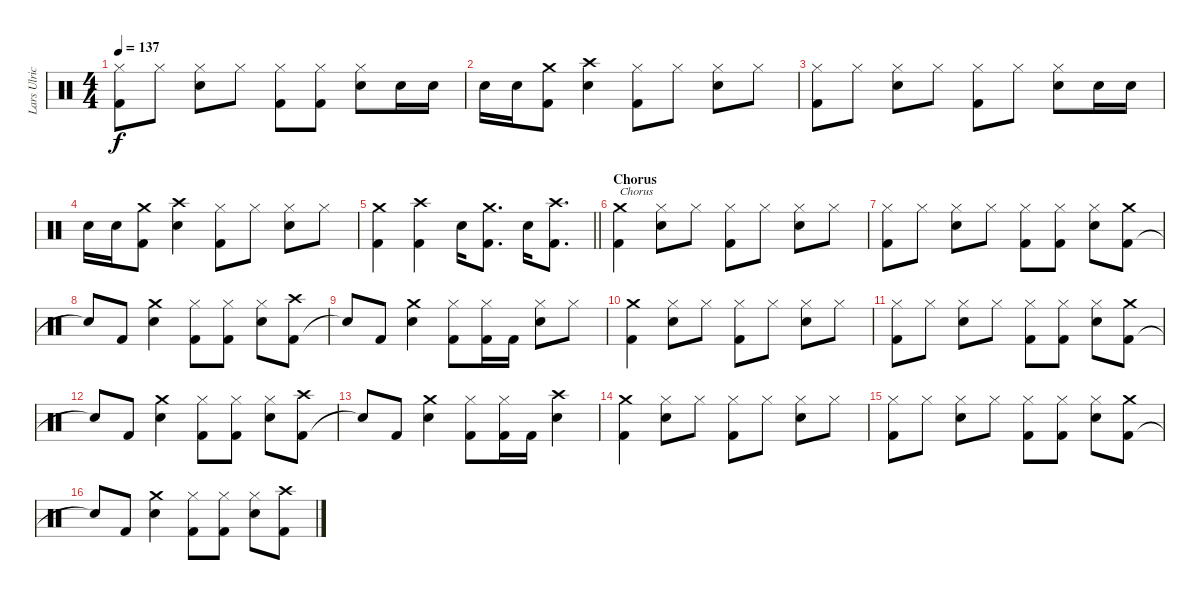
\track ("Lars Ulrich" "Lars Ulric") {instrument percussion}
\staff {score}
\articulation defaults
\ts (4 4)
\tempo 137
\clef neutral
\ks c
("Kick (hit) 2" "Hi-Hat (closed)").8{dy f} "Hi-Hat (closed)".8 ("Snare (hit) 2" "Hi-Hat (closed)").8 "Hi-Hat (closed)".8 ("Kick (hit) 2" "Hi-Hat (closed)").8 ("Kick (hit) 2" "Hi-Hat (closed)").8 ("Snare (hit) 2" "Hi-Hat (closed)").8 "Snare (hit) 2".16 "Snare (hit) 2".16 |
"Snare (hit) 2".16 "Snare (hit) 2".16 ("Kick (hit) 2" "Crash medium (hit)").8 ("Snare (hit) 2" "Crash high (hit)").4 ("Kick (hit) 2" "Hi-Hat (closed)").8 "Hi-Hat (closed)".8 ("Snare (hit) 2" "Hi-Hat (closed)").8 "Hi-Hat (closed)".8 |
("Kick (hit) 2" "Hi-Hat (closed)").8 "Hi-Hat (closed)".8 ("Snare (hit) 2" "Hi-Hat (closed)").8 "Hi-Hat (closed)".8 ("Kick (hit) 2" "Hi-Hat (closed)").8 "Hi-Hat (closed)".8 ("Snare (hit) 2" "Hi-Hat (closed)").8 "Snare (hit) 2".16 "Snare (hit) 2".16 |
"Snare (hit) 2".16 "Snare (hit) 2".16 ("Kick (hit) 2" "Crash medium (hit)").8 ("Snare (hit) 2" "Crash high (hit)").4 ("Kick (hit) 2" "Hi-Hat (closed)").8 "Hi-Hat (closed)".8 ("Snare (hit) 2" "Hi-Hat (closed)").8 "Hi-Hat (closed)".8 |
\barLineRight lightlight
("Kick (hit) 2" "Crash medium (hit)").4 ("Kick (hit) 2" "Crash high (hit)").4 "Snare (hit) 2".16 ("Kick (hit) 2" "Crash medium (hit)").8{d} "Snare (hit) 2".16 ("Kick (hit) 2" "Crash high (hit)").8{d} |
\section ("" "Chorus")
("Kick (hit) 2" "Crash medium (hit)").4{txt "Chorus"} ("Snare (hit) 2" "Hi-Hat (closed)").8 "Hi-Hat (closed)".8 ("Kick (hit) 2" "Hi-Hat (closed)").8 "Hi-Hat (closed)".8 ("Snare (hit) 2" "Hi-Hat (closed)").8 "Hi-Hat (closed)".8 |
("Kick (hit) 2" "Hi-Hat (closed)").8 "Hi-Hat (closed)".8 ("Snare (hit) 2" "Hi-Hat (closed)").8 "Hi-Hat (closed)".8 ("Kick (hit) 2" "Hi-Hat (closed)").8 ("Kick (hit) 2" "Hi-Hat (closed)").8 ("Snare (hit) 2" "Hi-Hat (closed)").8 ("Kick (hit) 2" "Crash medium (hit)").8 |
"Snare (hit)"{t}.8 "Kick (hit) 2".8 ("Snare (hit) 2" "Crash medium (hit)").4 ("Kick (hit) 2" "Hi-Hat (closed)").8 ("Kick (hit) 2" "Hi-Hat (closed)").8 ("Snare (hit) 2" "Hi-Hat (closed)").8 ("Kick (hit) 2" "Crash high (hit)").8 |
"Snare (hit)"{t}.8 "Kick (hit) 2".8 ("Snare (hit) 2" "Crash medium (hit)").4 ("Kick (hit) 2" "Hi-Hat (closed)").8 ("Kick (hit) 2" "Hi-Hat (closed)").16 "Kick (hit) 2".16 ("Snare (hit) 2" "Hi-Hat (closed)").8 "Hi-Hat (closed)".8 |
("Kick (hit) 2" "Crash medium (hit)").4 ("Snare (hit) 2" "Hi-Hat (closed)").8 "Hi-Hat (closed)".8 ("Kick (hit) 2" "Hi-Hat (closed)").8 "Hi-Hat (closed)".8 ("Snare (hit) 2" "Hi-Hat (closed)").8 "Hi-Hat (closed)".8 |
("Kick (hit) 2" "Hi-Hat (closed)").8 "Hi-Hat (closed)".8 ("Snare (hit) 2" "Hi-Hat (closed)").8 "Hi-Hat (closed)".8 ("Kick (hit) 2" "Hi-Hat (closed)").8 ("Kick (hit) 2" "Hi-Hat (closed)").8 ("Snare (hit) 2" "Hi-Hat (closed)").8 ("Kick (hit) 2" "Crash medium (hit)").8 |
"Snare (hit)"{t}.8 "Kick (hit) 2".8 ("Snare (hit) 2" "Crash medium (hit)").4 ("Kick (hit) 2" "Hi-Hat (closed)").8 ("Kick (hit) 2" "Hi-Hat (closed)").8 ("Snare (hit) 2" "Hi-Hat (closed)").8 ("Kick (hit) 2" "Crash high (hit)").8 |
"Snare (hit)"{t}.8 "Kick (hit) 2".8 ("Snare (hit) 2" "Crash medium (hit)").4 ("Kick (hit) 2" "Hi-Hat (closed)").8 ("Kick (hit) 2" "Hi-Hat (closed)").16 "Kick (hit) 2".16 ("Snare (hit) 2" "Crash high (hit)").4 |
("Kick (hit) 2" "Crash medium (hit)").4 ("Snare (hit) 2" "Hi-Hat (closed)").8 "Hi-Hat (closed)".8 ("Kick (hit) 2" "Hi-Hat (closed)").8 "Hi-Hat (closed)".8 ("Snare (hit) 2" "Hi-Hat (closed)").8 "Hi-Hat (closed)".8 |
("Kick (hit) 2" "Hi-Hat (closed)").8 "Hi-Hat (closed)".8 ("Snare (hit) 2" "Hi-Hat (closed)").8 "Hi-Hat (closed)".8 ("Kick (hit) 2" "Hi-Hat (closed)").8 ("Kick (hit) 2" "Hi-Hat (closed)").8 ("Snare (hit) 2" "Hi-Hat (closed)").8 ("Kick (hit) 2" "Crash medium (hit)").8 |
"Snare (hit)"{t}.8 "Kick (hit) 2".8 ("Snare (hit) 2" "Crash medium (hit)").4 ("Kick (hit) 2" "Hi-Hat (closed)").8 ("Kick (hit) 2" "Hi-Hat (closed)").8 ("Snare (hit) 2" "Hi-Hat (closed)").8 ("Kick (hit) 2" "Crash high (hit)").8
